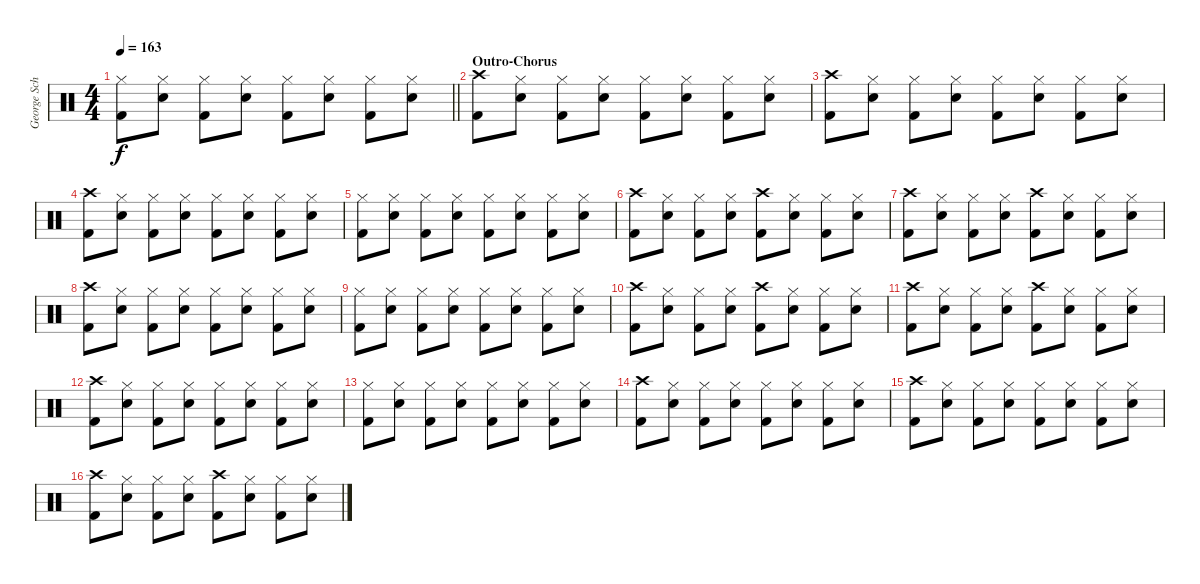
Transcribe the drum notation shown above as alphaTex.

\track ("George Schwindt" "George Sch") {instrument percussion}
\staff {score}
\articulation defaults
\ts (4 4)
\tempo 163
\clef neutral
\barLineRight lightlight
\ks c
("Hi-Hat (closed)" "Kick (hit) 2").8{dy f} ("Hi-Hat (closed)" "Snare (hit) 2").8 ("Hi-Hat (closed)" "Kick (hit) 2").8 ("Hi-Hat (closed)" "Snare (hit) 2").8 ("Hi-Hat (closed)" "Kick (hit) 2").8 ("Hi-Hat (closed)" "Snare (hit) 2").8 ("Hi-Hat (closed)" "Kick (hit) 2").8 ("Hi-Hat (closed)" "Snare (hit) 2").8 |
\section ("" "Outro-Chorus")
("Crash high (hit)" "Kick (hit) 2").8 ("Hi-Hat (closed)" "Snare (hit) 2").8 ("Hi-Hat (closed)" "Kick (hit) 2").8 ("Hi-Hat (closed)" "Snare (hit) 2").8 ("Hi-Hat (closed)" "Kick (hit) 2").8 ("Hi-Hat (closed)" "Snare (hit) 2").8 ("Hi-Hat (closed)" "Kick (hit) 2").8 ("Hi-Hat (closed)" "Snare (hit) 2").8 |
("Crash high (hit)" "Kick (hit) 2").8 ("Hi-Hat (closed)" "Snare (hit) 2").8 ("Hi-Hat (closed)" "Kick (hit) 2").8 ("Hi-Hat (closed)" "Snare (hit) 2").8 ("Hi-Hat (closed)" "Kick (hit) 2").8 ("Hi-Hat (closed)" "Snare (hit) 2").8 ("Hi-Hat (closed)" "Kick (hit) 2").8 ("Hi-Hat (closed)" "Snare (hit) 2").8 |
("Crash high (hit)" "Kick (hit) 2").8 ("Hi-Hat (closed)" "Snare (hit) 2").8 ("Hi-Hat (closed)" "Kick (hit) 2").8 ("Hi-Hat (closed)" "Snare (hit) 2").8 ("Hi-Hat (closed)" "Kick (hit) 2").8 ("Hi-Hat (closed)" "Snare (hit) 2").8 ("Hi-Hat (closed)" "Kick (hit) 2").8 ("Hi-Hat (closed)" "Snare (hit) 2").8 |
("Hi-Hat (closed)" "Kick (hit) 2").8 ("Hi-Hat (closed)" "Snare (hit) 2").8 ("Hi-Hat (closed)" "Kick (hit) 2").8 ("Hi-Hat (closed)" "Snare (hit) 2").8 ("Hi-Hat (closed)" "Kick (hit) 2").8 ("Hi-Hat (closed)" "Snare (hit) 2").8 ("Hi-Hat (closed)" "Kick (hit) 2").8 ("Hi-Hat (closed)" "Snare (hit) 2").8 |
("Crash high (hit)" "Kick (hit) 2").8 ("Hi-Hat (closed)" "Snare (hit) 2").8 ("Hi-Hat (closed)" "Kick (hit) 2").8 ("Hi-Hat (closed)" "Snare (hit) 2").8 ("Crash high (hit)" "Kick (hit) 2").8 ("Hi-Hat (closed)" "Snare (hit) 2").8 ("Hi-Hat (closed)" "Kick (hit) 2").8 ("Hi-Hat (closed)" "Snare (hit) 2").8 |
("Crash high (hit)" "Kick (hit) 2").8 ("Hi-Hat (closed)" "Snare (hit) 2").8 ("Hi-Hat (closed)" "Kick (hit) 2").8 ("Hi-Hat (closed)" "Snare (hit) 2").8 ("Crash high (hit)" "Kick (hit) 2").8 ("Hi-Hat (closed)" "Snare (hit) 2").8 ("Hi-Hat (closed)" "Kick (hit) 2").8 ("Hi-Hat (closed)" "Snare (hit) 2").8 |
("Crash high (hit)" "Kick (hit) 2").8 ("Hi-Hat (closed)" "Snare (hit) 2").8 ("Hi-Hat (closed)" "Kick (hit) 2").8 ("Hi-Hat (closed)" "Snare (hit) 2").8 ("Hi-Hat (closed)" "Kick (hit) 2").8 ("Hi-Hat (closed)" "Snare (hit) 2").8 ("Hi-Hat (closed)" "Kick (hit) 2").8 ("Hi-Hat (closed)" "Snare (hit) 2").8 |
("Hi-Hat (closed)" "Kick (hit) 2").8 ("Hi-Hat (closed)" "Snare (hit) 2").8 ("Hi-Hat (closed)" "Kick (hit) 2").8 ("Hi-Hat (closed)" "Snare (hit) 2").8 ("Hi-Hat (closed)" "Kick (hit) 2").8 ("Hi-Hat (closed)" "Snare (hit) 2").8 ("Hi-Hat (closed)" "Kick (hit) 2").8 ("Hi-Hat (closed)" "Snare (hit) 2").8 |
("Crash high (hit)" "Kick (hit) 2").8 ("Hi-Hat (closed)" "Snare (hit) 2").8 ("Hi-Hat (closed)" "Kick (hit) 2").8 ("Hi-Hat (closed)" "Snare (hit) 2").8 ("Crash high (hit)" "Kick (hit) 2").8 ("Hi-Hat (closed)" "Snare (hit) 2").8 ("Hi-Hat (closed)" "Kick (hit) 2").8 ("Hi-Hat (closed)" "Snare (hit) 2").8 |
("Crash high (hit)" "Kick (hit) 2").8 ("Hi-Hat (closed)" "Snare (hit) 2").8 ("Hi-Hat (closed)" "Kick (hit) 2").8 ("Hi-Hat (closed)" "Snare (hit) 2").8 ("Crash high (hit)" "Kick (hit) 2").8 ("Hi-Hat (closed)" "Snare (hit) 2").8 ("Hi-Hat (closed)" "Kick (hit) 2").8 ("Hi-Hat (closed)" "Snare (hit) 2").8 |
("Crash high (hit)" "Kick (hit) 2").8 ("Hi-Hat (closed)" "Snare (hit) 2").8 ("Hi-Hat (closed)" "Kick (hit) 2").8 ("Hi-Hat (closed)" "Snare (hit) 2").8 ("Hi-Hat (closed)" "Kick (hit) 2").8 ("Hi-Hat (closed)" "Snare (hit) 2").8 ("Hi-Hat (closed)" "Kick (hit) 2").8 ("Hi-Hat (closed)" "Snare (hit) 2").8 |
("Hi-Hat (closed)" "Kick (hit) 2").8 ("Hi-Hat (closed)" "Snare (hit) 2").8 ("Hi-Hat (closed)" "Kick (hit) 2").8 ("Hi-Hat (closed)" "Snare (hit) 2").8 ("Hi-Hat (closed)" "Kick (hit) 2").8 ("Hi-Hat (closed)" "Snare (hit) 2").8 ("Hi-Hat (closed)" "Kick (hit) 2").8 ("Hi-Hat (closed)" "Snare (hit) 2").8 |
("Crash high (hit)" "Kick (hit) 2").8 ("Hi-Hat (closed)" "Snare (hit) 2").8 ("Hi-Hat (closed)" "Kick (hit) 2").8 ("Hi-Hat (closed)" "Snare (hit) 2").8 ("Hi-Hat (closed)" "Kick (hit) 2").8 ("Hi-Hat (closed)" "Snare (hit) 2").8 ("Hi-Hat (closed)" "Kick (hit) 2").8 ("Hi-Hat (closed)" "Snare (hit) 2").8 |
("Crash high (hit)" "Kick (hit) 2").8 ("Hi-Hat (closed)" "Snare (hit) 2").8 ("Hi-Hat (closed)" "Kick (hit) 2").8 ("Hi-Hat (closed)" "Snare (hit) 2").8 ("Hi-Hat (closed)" "Kick (hit) 2").8 ("Hi-Hat (closed)" "Snare (hit) 2").8 ("Hi-Hat (closed)" "Kick (hit) 2").8 ("Hi-Hat (closed)" "Snare (hit) 2").8 |
("Crash high (hit)" "Kick (hit) 2").8 ("Hi-Hat (closed)" "Snare (hit) 2").8 ("Hi-Hat (closed)" "Kick (hit) 2").8 ("Hi-Hat (closed)" "Snare (hit) 2").8 ("Crash high (hit)" "Kick (hit) 2").8 ("Hi-Hat (closed)" "Snare (hit) 2").8 ("Hi-Hat (closed)" "Kick (hit) 2").8 ("Hi-Hat (closed)" "Snare (hit) 2").8
